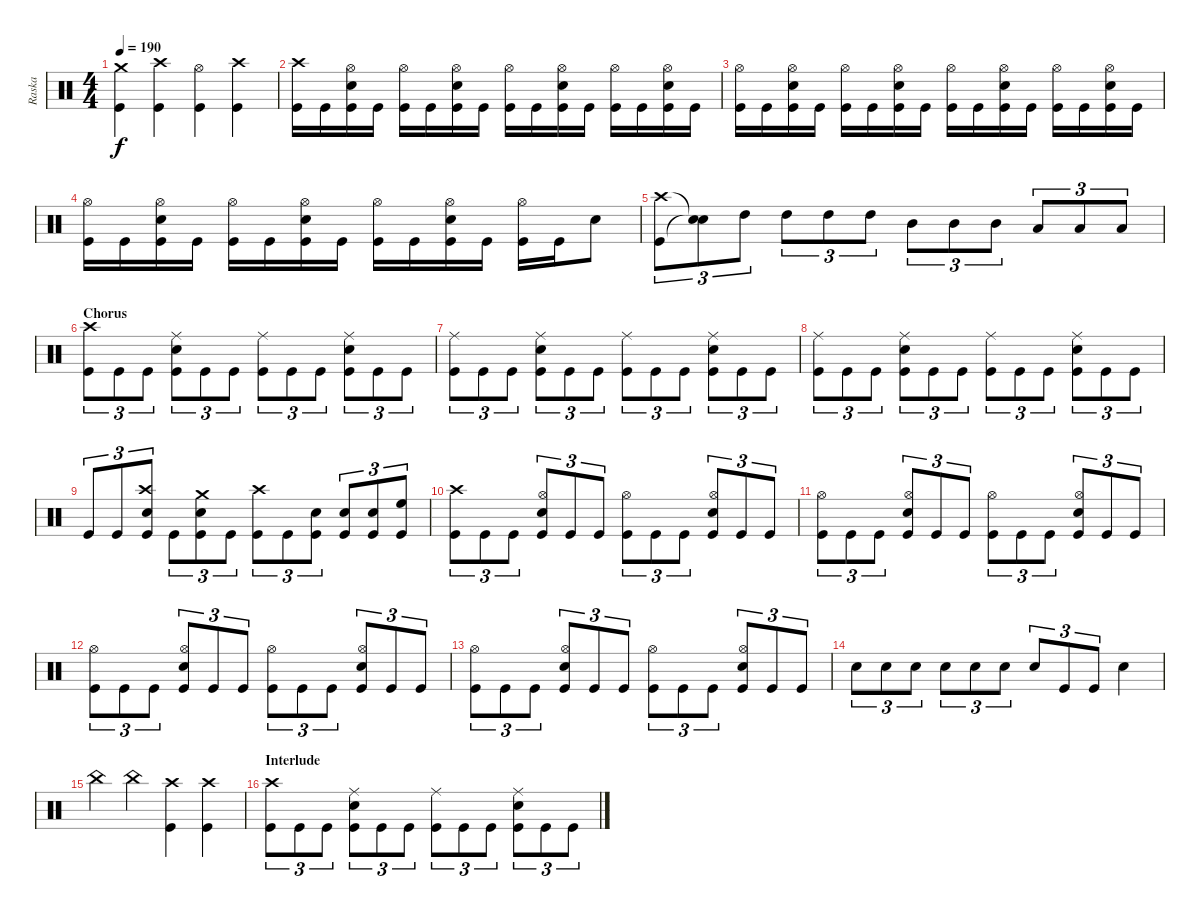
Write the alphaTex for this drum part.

\track ("Raska" "Raska") {instrument percussion}
\staff {score}
\articulation defaults
\ts (4 4)
\tempo 190
\clef neutral
\ks c
("Crash medium (hit)" "Kick (hit)").4{dy f} ("Crash high (hit)" "Kick (hit)").4 ("Hi-Hat (open)" "Kick (hit)").4 ("Crash high (hit)" "Kick (hit)").4 |
("Crash high (hit)" "Kick (hit)").16 "Kick (hit)".16 ("Hi-Hat (open)" "Electric Snare (hit)" "Kick (hit)").16 "Kick (hit)".16 ("Hi-Hat (open)" "Kick (hit)").16 "Kick (hit)".16 ("Hi-Hat (open)" "Electric Snare (hit)" "Kick (hit)").16 "Kick (hit)".16 ("Hi-Hat (open)" "Kick (hit)").16 "Kick (hit)".16 ("Hi-Hat (open)" "Electric Snare (hit)" "Kick (hit)").16 "Kick (hit)".16 ("Hi-Hat (open)" "Kick (hit)").16 "Kick (hit)".16 ("Hi-Hat (open)" "Electric Snare (hit)" "Kick (hit)").16 "Kick (hit)".16 |
("Hi-Hat (open)" "Kick (hit)").16 "Kick (hit)".16 ("Hi-Hat (open)" "Electric Snare (hit)" "Kick (hit)").16 "Kick (hit)".16 ("Hi-Hat (open)" "Kick (hit)").16 "Kick (hit)".16 ("Hi-Hat (open)" "Electric Snare (hit)" "Kick (hit)").16 "Kick (hit)".16 ("Hi-Hat (open)" "Kick (hit)").16 "Kick (hit)".16 ("Hi-Hat (open)" "Electric Snare (hit)" "Kick (hit)").16 "Kick (hit)".16 ("Hi-Hat (open)" "Kick (hit)").16 "Kick (hit)".16 ("Hi-Hat (open)" "Electric Snare (hit)" "Kick (hit)").16 "Kick (hit)".16 |
("Hi-Hat (open)" "Kick (hit)").16 "Kick (hit)".16 ("Hi-Hat (open)" "Electric Snare (hit)" "Kick (hit)").16 "Kick (hit)".16 ("Hi-Hat (open)" "Kick (hit)").16 "Kick (hit)".16 ("Hi-Hat (open)" "Electric Snare (hit)" "Kick (hit)").16 "Kick (hit)".16 ("Hi-Hat (open)" "Kick (hit)").16 "Kick (hit)".16 ("Hi-Hat (open)" "Electric Snare (hit)" "Kick (hit)").16 "Kick (hit)".16 ("Hi-Hat (open)" "Kick (hit)").16 "Kick (hit)".16 "Electric Snare (hit)".8 |
("Crash high (hit)" "Kick (hit)").8{tu (3 2)} ("Snare (hit)"{t} "Snare (hit)"{t}).8{tu (3 2)} "High Tom (hit)".8{tu (3 2)} "High Tom (hit)".8{tu (3 2)} "High Tom (hit)".8{tu (3 2)} "High Tom (hit)".8{tu (3 2)} "Mid Tom (hit)".8{tu (3 2)} "Mid Tom (hit)".8{tu (3 2)} "Mid Tom (hit)".8{tu (3 2)} "Low Tom (hit)".8{tu (3 2)} "Low Tom (hit)".8{tu (3 2)} "Low Tom (hit)".8{tu (3 2)} |
\section ("" "Chorus")
("Crash high (hit)" "Kick (hit)").8{tu (3 2)} "Kick (hit)".8{tu (3 2)} "Kick (hit)".8{tu (3 2)} ("Ride (middle)" "Electric Snare (hit)" "Kick (hit)").8{tu (3 2)} "Kick (hit)".8{tu (3 2)} "Kick (hit)".8{tu (3 2)} ("Ride (middle)" "Kick (hit)").8{tu (3 2)} "Kick (hit)".8{tu (3 2)} "Kick (hit)".8{tu (3 2)} ("Ride (middle)" "Electric Snare (hit)" "Kick (hit)").8{tu (3 2)} "Kick (hit)".8{tu (3 2)} "Kick (hit)".8{tu (3 2)} |
("Ride (middle)" "Kick (hit)").8{tu (3 2)} "Kick (hit)".8{tu (3 2)} "Kick (hit)".8{tu (3 2)} ("Ride (middle)" "Electric Snare (hit)" "Kick (hit)").8{tu (3 2)} "Kick (hit)".8{tu (3 2)} "Kick (hit)".8{tu (3 2)} ("Ride (middle)" "Kick (hit)").8{tu (3 2)} "Kick (hit)".8{tu (3 2)} "Kick (hit)".8{tu (3 2)} ("Ride (middle)" "Electric Snare (hit)" "Kick (hit)").8{tu (3 2)} "Kick (hit)".8{tu (3 2)} "Kick (hit)".8{tu (3 2)} |
("Ride (middle)" "Kick (hit)").8{tu (3 2)} "Kick (hit)".8{tu (3 2)} "Kick (hit)".8{tu (3 2)} ("Ride (middle)" "Electric Snare (hit)" "Kick (hit)").8{tu (3 2)} "Kick (hit)".8{tu (3 2)} "Kick (hit)".8{tu (3 2)} ("Ride (middle)" "Kick (hit)").8{tu (3 2)} "Kick (hit)".8{tu (3 2)} "Kick (hit)".8{tu (3 2)} ("Ride (middle)" "Electric Snare (hit)" "Kick (hit)").8{tu (3 2)} "Kick (hit)".8{tu (3 2)} "Kick (hit)".8{tu (3 2)} |
"Kick (hit)".8{tu (3 2)} "Kick (hit)".8{tu (3 2)} ("Crash high (hit)" "Electric Snare (hit)" "Kick (hit)").8{tu (3 2)} "Kick (hit)".8{tu (3 2)} ("Crash medium (hit)" "Electric Snare (hit)" "Kick (hit)").8{tu (3 2)} "Kick (hit)".8{tu (3 2)} ("Crash high (hit)" "Kick (hit)").8{tu (3 2)} "Kick (hit)".8{tu (3 2)} ("Electric Snare (hit)" "Kick (hit)").8{tu (3 2)} ("Electric Snare (hit)" "Kick (hit)").8{tu (3 2)} ("Electric Snare (hit)" "Kick (hit)").8{tu (3 2)} ("High Floor Tom (hit)" "Kick (hit)").8{tu (3 2)} |
("Crash high (hit)" "Kick (hit)").8{tu (3 2)} "Kick (hit)".8{tu (3 2)} "Kick (hit)".8{tu (3 2)} ("Hi-Hat (open)" "Electric Snare (hit)" "Kick (hit)").8{tu (3 2)} "Kick (hit)".8{tu (3 2)} "Kick (hit)".8{tu (3 2)} ("Hi-Hat (open)" "Kick (hit)").8{tu (3 2)} "Kick (hit)".8{tu (3 2)} "Kick (hit)".8{tu (3 2)} ("Hi-Hat (open)" "Electric Snare (hit)" "Kick (hit)").8{tu (3 2)} "Kick (hit)".8{tu (3 2)} "Kick (hit)".8{tu (3 2)} |
("Hi-Hat (open)" "Kick (hit)").8{tu (3 2)} "Kick (hit)".8{tu (3 2)} "Kick (hit)".8{tu (3 2)} ("Hi-Hat (open)" "Electric Snare (hit)" "Kick (hit)").8{tu (3 2)} "Kick (hit)".8{tu (3 2)} "Kick (hit)".8{tu (3 2)} ("Hi-Hat (open)" "Kick (hit)").8{tu (3 2)} "Kick (hit)".8{tu (3 2)} "Kick (hit)".8{tu (3 2)} ("Hi-Hat (open)" "Electric Snare (hit)" "Kick (hit)").8{tu (3 2)} "Kick (hit)".8{tu (3 2)} "Kick (hit)".8{tu (3 2)} |
("Hi-Hat (open)" "Kick (hit)").8{tu (3 2)} "Kick (hit)".8{tu (3 2)} "Kick (hit)".8{tu (3 2)} ("Hi-Hat (open)" "Electric Snare (hit)" "Kick (hit)").8{tu (3 2)} "Kick (hit)".8{tu (3 2)} "Kick (hit)".8{tu (3 2)} ("Hi-Hat (open)" "Kick (hit)").8{tu (3 2)} "Kick (hit)".8{tu (3 2)} "Kick (hit)".8{tu (3 2)} ("Hi-Hat (open)" "Electric Snare (hit)" "Kick (hit)").8{tu (3 2)} "Kick (hit)".8{tu (3 2)} "Kick (hit)".8{tu (3 2)} |
("Hi-Hat (open)" "Kick (hit)").8{tu (3 2)} "Kick (hit)".8{tu (3 2)} "Kick (hit)".8{tu (3 2)} ("Hi-Hat (open)" "Electric Snare (hit)" "Kick (hit)").8{tu (3 2)} "Kick (hit)".8{tu (3 2)} "Kick (hit)".8{tu (3 2)} ("Hi-Hat (open)" "Kick (hit)").8{tu (3 2)} "Kick (hit)".8{tu (3 2)} "Kick (hit)".8{tu (3 2)} ("Hi-Hat (open)" "Electric Snare (hit)" "Kick (hit)").8{tu (3 2)} "Kick (hit)".8{tu (3 2)} "Kick (hit)".8{tu (3 2)} |
"Electric Snare (hit)".8{tu (3 2)} "Electric Snare (hit)".8{tu (3 2)} "Electric Snare (hit)".8{tu (3 2)} "Electric Snare (hit)".8{tu (3 2)} "Electric Snare (hit)".8{tu (3 2)} "Electric Snare (hit)".8{tu (3 2)} "Electric Snare (hit)".8{tu (3 2)} "Kick (hit)".8{tu (3 2)} "Kick (hit)".8{tu (3 2)} "Electric Snare (hit)".4 |
"China (hit)".4 "China (hit)".4 ("Crash high (hit)" "Kick (hit)").4 ("Crash high (hit)" "Kick (hit)").4 |
\section ("" "Interlude")
("Crash high (hit)" "Kick (hit)").8{tu (3 2)} "Kick (hit)".8{tu (3 2)} "Kick (hit)".8{tu (3 2)} ("Ride (middle)" "Electric Snare (hit)" "Kick (hit)").8{tu (3 2)} "Kick (hit)".8{tu (3 2)} "Kick (hit)".8{tu (3 2)} ("Ride (middle)" "Kick (hit)").8{tu (3 2)} "Kick (hit)".8{tu (3 2)} "Kick (hit)".8{tu (3 2)} ("Ride (middle)" "Electric Snare (hit)" "Kick (hit)").8{tu (3 2)} "Kick (hit)".8{tu (3 2)} "Kick (hit)".8{tu (3 2)}
